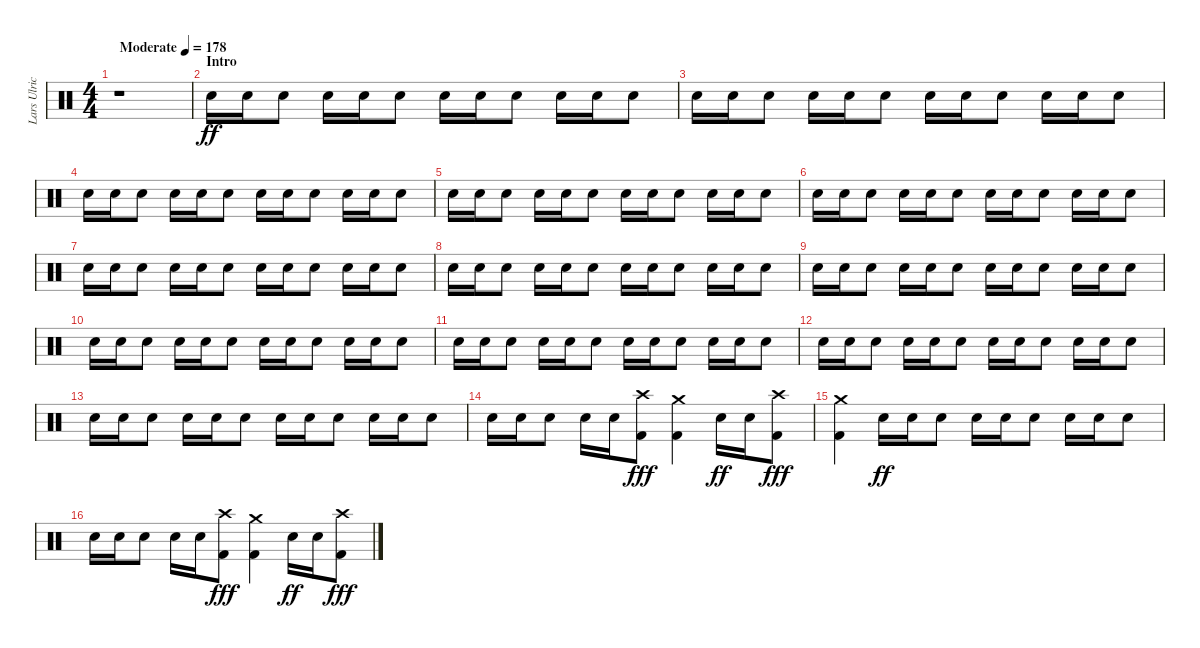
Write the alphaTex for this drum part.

\track ("Lars Ulrich" "Lars Ulric") {instrument percussion}
\staff {score}
\articulation defaults
\ts (4 4)
\tempo (178 "Moderate")
\clef neutral
\ks c
r.1{dy ff} |
\section ("" "Intro")
"Electric Snare (hit)".16 "Electric Snare (hit)".16 "Electric Snare (hit)".8 "Electric Snare (hit)".16 "Electric Snare (hit)".16 "Electric Snare (hit)".8 "Electric Snare (hit)".16 "Electric Snare (hit)".16 "Electric Snare (hit)".8 "Electric Snare (hit)".16 "Electric Snare (hit)".16 "Electric Snare (hit)".8 |
"Electric Snare (hit)".16 "Electric Snare (hit)".16 "Electric Snare (hit)".8 "Electric Snare (hit)".16 "Electric Snare (hit)".16 "Electric Snare (hit)".8 "Electric Snare (hit)".16 "Electric Snare (hit)".16 "Electric Snare (hit)".8 "Electric Snare (hit)".16 "Electric Snare (hit)".16 "Electric Snare (hit)".8 |
"Electric Snare (hit)".16 "Electric Snare (hit)".16 "Electric Snare (hit)".8 "Electric Snare (hit)".16 "Electric Snare (hit)".16 "Electric Snare (hit)".8 "Electric Snare (hit)".16 "Electric Snare (hit)".16 "Electric Snare (hit)".8 "Electric Snare (hit)".16 "Electric Snare (hit)".16 "Electric Snare (hit)".8 |
"Electric Snare (hit)".16 "Electric Snare (hit)".16 "Electric Snare (hit)".8 "Electric Snare (hit)".16 "Electric Snare (hit)".16 "Electric Snare (hit)".8 "Electric Snare (hit)".16 "Electric Snare (hit)".16 "Electric Snare (hit)".8 "Electric Snare (hit)".16 "Electric Snare (hit)".16 "Electric Snare (hit)".8 |
"Electric Snare (hit)".16 "Electric Snare (hit)".16 "Electric Snare (hit)".8 "Electric Snare (hit)".16 "Electric Snare (hit)".16 "Electric Snare (hit)".8 "Electric Snare (hit)".16 "Electric Snare (hit)".16 "Electric Snare (hit)".8 "Electric Snare (hit)".16 "Electric Snare (hit)".16 "Electric Snare (hit)".8 |
"Electric Snare (hit)".16 "Electric Snare (hit)".16 "Electric Snare (hit)".8 "Electric Snare (hit)".16 "Electric Snare (hit)".16 "Electric Snare (hit)".8 "Electric Snare (hit)".16 "Electric Snare (hit)".16 "Electric Snare (hit)".8 "Electric Snare (hit)".16 "Electric Snare (hit)".16 "Electric Snare (hit)".8 |
"Electric Snare (hit)".16 "Electric Snare (hit)".16 "Electric Snare (hit)".8 "Electric Snare (hit)".16 "Electric Snare (hit)".16 "Electric Snare (hit)".8 "Electric Snare (hit)".16 "Electric Snare (hit)".16 "Electric Snare (hit)".8 "Electric Snare (hit)".16 "Electric Snare (hit)".16 "Electric Snare (hit)".8 |
"Electric Snare (hit)".16 "Electric Snare (hit)".16 "Electric Snare (hit)".8 "Electric Snare (hit)".16 "Electric Snare (hit)".16 "Electric Snare (hit)".8 "Electric Snare (hit)".16 "Electric Snare (hit)".16 "Electric Snare (hit)".8 "Electric Snare (hit)".16 "Electric Snare (hit)".16 "Electric Snare (hit)".8 |
"Electric Snare (hit)".16 "Electric Snare (hit)".16 "Electric Snare (hit)".8 "Electric Snare (hit)".16 "Electric Snare (hit)".16 "Electric Snare (hit)".8 "Electric Snare (hit)".16 "Electric Snare (hit)".16 "Electric Snare (hit)".8 "Electric Snare (hit)".16 "Electric Snare (hit)".16 "Electric Snare (hit)".8 |
"Electric Snare (hit)".16 "Electric Snare (hit)".16 "Electric Snare (hit)".8 "Electric Snare (hit)".16 "Electric Snare (hit)".16 "Electric Snare (hit)".8 "Electric Snare (hit)".16 "Electric Snare (hit)".16 "Electric Snare (hit)".8 "Electric Snare (hit)".16 "Electric Snare (hit)".16 "Electric Snare (hit)".8 |
"Electric Snare (hit)".16 "Electric Snare (hit)".16 "Electric Snare (hit)".8 "Electric Snare (hit)".16 "Electric Snare (hit)".16 "Electric Snare (hit)".8 "Electric Snare (hit)".16 "Electric Snare (hit)".16 "Electric Snare (hit)".8 "Electric Snare (hit)".16 "Electric Snare (hit)".16 "Electric Snare (hit)".8 |
"Electric Snare (hit)".16 "Electric Snare (hit)".16 "Electric Snare (hit)".8 "Electric Snare (hit)".16 "Electric Snare (hit)".16 "Electric Snare (hit)".8 "Electric Snare (hit)".16 "Electric Snare (hit)".16 "Electric Snare (hit)".8 "Electric Snare (hit)".16 "Electric Snare (hit)".16 "Electric Snare (hit)".8 |
"Electric Snare (hit)".16 "Electric Snare (hit)".16 "Electric Snare (hit)".8 "Electric Snare (hit)".16 "Electric Snare (hit)".16 ("Crash high (hit)" "Kick (hit) 2").8{dy fff} ("Crash medium (hit)" "Kick (hit) 2").4 "Electric Snare (hit)".16{dy ff} "Electric Snare (hit)".16 ("Crash high (hit)" "Kick (hit) 2").8{dy fff} |
("Crash medium (hit)" "Kick (hit) 2").4 "Electric Snare (hit)".16{dy ff} "Electric Snare (hit)".16 "Electric Snare (hit)".8 "Electric Snare (hit)".16 "Electric Snare (hit)".16 "Electric Snare (hit)".8 "Electric Snare (hit)".16 "Electric Snare (hit)".16 "Electric Snare (hit)".8 |
"Electric Snare (hit)".16 "Electric Snare (hit)".16 "Electric Snare (hit)".8 "Electric Snare (hit)".16 "Electric Snare (hit)".16 ("Crash high (hit)" "Kick (hit) 2").8{dy fff} ("Crash medium (hit)" "Kick (hit) 2").4 "Electric Snare (hit)".16{dy ff} "Electric Snare (hit)".16 ("Crash high (hit)" "Kick (hit) 2").8{dy fff}
